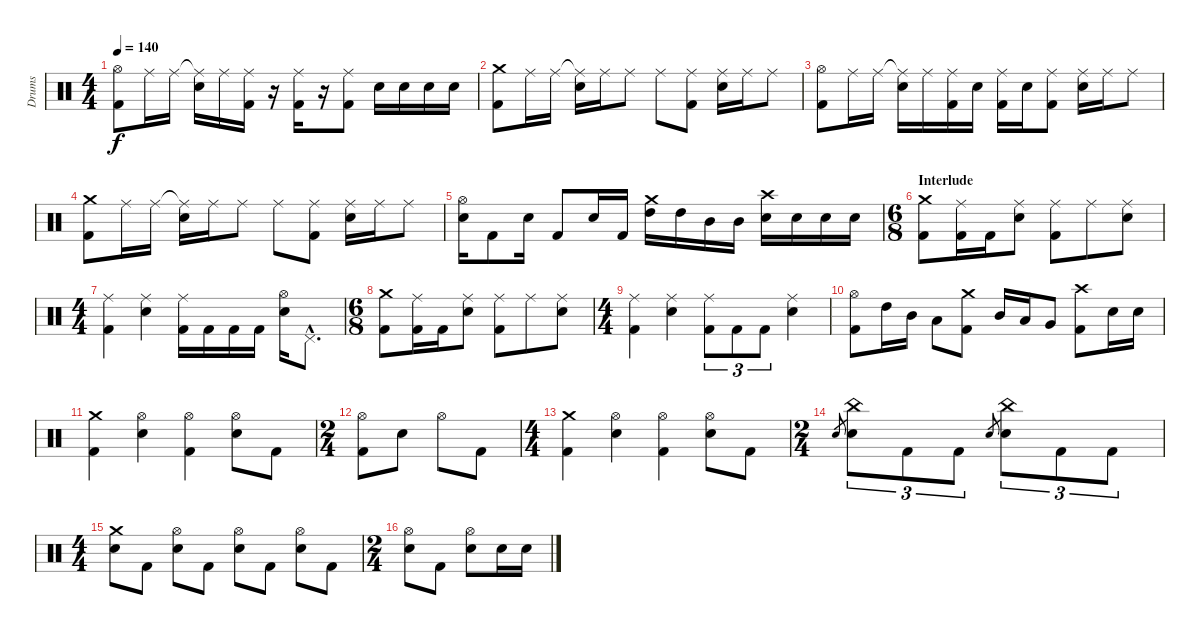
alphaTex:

\track ("Drums" "Drums") {instrument percussion}
\staff {score}
\articulation defaults
\ts (4 4)
\tempo 140
\clef neutral
\ks c
("Hi-Hat (open)" "Kick (hit) 2").8{dy f} "Ride (middle)".16 "Ride (middle)".16 ("Ride (middle)"{t} "Snare (hit) 2").16 "Ride (middle)".16 ("Ride (middle)" "Kick (hit) 2").16 r.16 ("Ride (middle)" "Kick (hit) 2").16 r.16 ("Ride (middle)" "Kick (hit) 2").8 "Snare (hit) 2".16 "Snare (hit) 2".16 "Snare (hit) 2".16 "Snare (hit) 2".16 |
("Crash medium (hit)" "Kick (hit) 2").8 "Ride (middle)".16 "Ride (middle)".16 ("Ride (middle)"{t} "Snare (hit) 2").16 "Ride (middle)".16 "Ride (middle)".8 "Ride (middle)".8 ("Ride (middle)" "Kick (hit) 2").8 ("Ride (middle)" "Snare (hit) 2").16 "Ride (middle)".16 "Ride (middle)".8 |
("Hi-Hat (open)" "Kick (hit) 2").8 "Ride (middle)".16 "Ride (middle)".16 ("Ride (middle)"{t} "Snare (hit) 2").16 "Ride (middle)".16 ("Ride (middle)" "Kick (hit) 2").16 "Snare (hit) 2".16 ("Ride (middle)" "Kick (hit) 2").16 "Snare (hit) 2".16 ("Ride (middle)" "Kick (hit) 2").8 ("Ride (middle)" "Snare (hit) 2").16 "Ride (middle)".16 "Ride (middle)".8 |
("Crash medium (hit)" "Kick (hit) 2").8 "Ride (middle)".16 "Ride (middle)".16 ("Ride (middle)"{t} "Snare (hit) 2").16 "Ride (middle)".16 "Ride (middle)".8 "Ride (middle)".8 ("Ride (middle)" "Kick (hit) 2").8 ("Ride (middle)" "Snare (hit) 2").16 "Ride (middle)".16 "Ride (middle)".8 |
("Hi-Hat (open)" "Snare (hit) 2").16 "Kick (hit) 2".8 "Snare (hit) 2".16 "Kick (hit) 2".8 "Snare (hit) 2".16 "Kick (hit) 2".16 ("Crash medium (hit)" "High Tom (hit)").16 "High Tom (hit)".16 "Mid Tom (hit)".16 "Mid Tom (hit)".16 ("Crash high (hit)" "Snare (hit) 2").16 "Snare (hit) 2".16 "Snare (hit) 2".16 "Snare (hit) 2".16 |
\ts (6 8)
\section ("" "Interlude")
("Crash medium (hit)" "Kick (hit) 2").8 ("Ride (middle)" "Kick (hit) 2").16 "Kick (hit) 2".16 ("Ride (middle)" "Snare (hit) 2").8 ("Ride (middle)" "Kick (hit) 2").8 "Ride (middle)".8 ("Ride (middle)" "Snare (hit) 2").8 |
\ts (4 4)
("Ride (middle)" "Kick (hit) 2").4 ("Ride (middle)" "Snare (hit) 2").4 ("Ride (middle)" "Kick (hit) 2").16 "Kick (hit) 2".16 "Kick (hit) 2".16 "Kick (hit) 2".16 ("Hi-Hat (open)" "Snare (hit) 2").16 "Pedal Hi-Hat (hit)"{hac}.8{d} |
\ts (6 8)
("Crash medium (hit)" "Kick (hit) 2").8 ("Ride (middle)" "Kick (hit) 2").16 "Kick (hit) 2".16 ("Ride (middle)" "Snare (hit) 2").8 ("Ride (middle)" "Kick (hit) 2").8 "Ride (middle)".8 ("Ride (middle)" "Snare (hit) 2").8 |
\ts (4 4)
("Ride (middle)" "Kick (hit) 2").4 ("Ride (middle)" "Snare (hit) 2").4 ("Ride (middle)" "Kick (hit) 2").8{tu (3 2)} "Kick (hit) 2".8{tu (3 2)} "Kick (hit) 2".8{tu (3 2)} ("Ride (middle)" "Snare (hit) 2").4 |
("Hi-Hat (open)" "Kick (hit) 2").8 "High Tom (hit)".16 "Mid Tom (hit)".16 "Low Tom (hit)".8 ("Crash medium (hit)" "Kick (hit) 2").8 "Mid Tom (hit)".16 "Low Tom (hit)".16 "Very Low Tom (hit)".8 ("Crash high (hit)" "Kick (hit) 2").8 "Snare (hit) 2".16 "Snare (hit) 2".16 |
("Crash medium (hit)" "Kick (hit) 2").4 ("Hi-Hat (open)" "Snare (hit) 2").4 ("Hi-Hat (open)" "Kick (hit) 2").4 ("Hi-Hat (open)" "Snare (hit) 2").8 "Kick (hit) 2".8 |
\ts (2 4)
("Hi-Hat (open)" "Kick (hit) 2").8 "Snare (hit) 2".8 "Hi-Hat (open)".8 "Kick (hit) 2".8 |
\ts (4 4)
("Crash medium (hit)" "Kick (hit) 2").4 ("Hi-Hat (open)" "Snare (hit) 2").4 ("Hi-Hat (open)" "Kick (hit) 2").4 ("Hi-Hat (open)" "Snare (hit) 2").8 "Kick (hit) 2".8 |
\ts (2 4)
"Snare (hit) 2".8{gr} ("China (hit)" "Snare (hit) 2").8{tu (3 2)} "Kick (hit) 2".8{tu (3 2)} "Kick (hit) 2".8{tu (3 2)} "Snare (hit) 2".8{gr} ("China (hit)" "Snare (hit) 2").8{tu (3 2)} "Kick (hit) 2".8{tu (3 2)} "Kick (hit) 2".8{tu (3 2)} |
\ts (4 4)
("Crash medium (hit)" "Snare (hit) 2").8 "Kick (hit) 2".8 ("Hi-Hat (open)" "Snare (hit) 2").8 "Kick (hit) 2".8 ("Hi-Hat (open)" "Snare (hit) 2").8 "Kick (hit) 2".8 ("Hi-Hat (open)" "Snare (hit) 2").8 "Kick (hit) 2".8 |
\ts (2 4)
("Hi-Hat (open)" "Snare (hit) 2").8 "Kick (hit) 2".8 ("Hi-Hat (open)" "Snare (hit) 2").8 "Snare (hit) 2".16 "Snare (hit) 2".16
